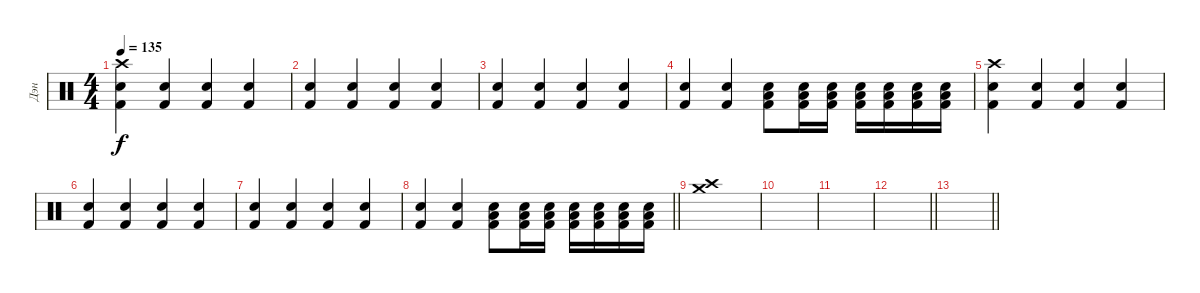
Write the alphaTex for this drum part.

\track ("Дэн" "Дэн") {instrument percussion}
\staff {score}
\articulation defaults
\ts (4 4)
\tempo 135
\clef neutral
\ks c
("Snare (hit) 2" "Kick (hit) 2" "Crash high (hit)").4{dy f} ("Snare (hit) 2" "Kick (hit) 2").4 ("Snare (hit) 2" "Kick (hit) 2").4 ("Snare (hit) 2" "Kick (hit) 2").4 |
("Snare (hit) 2" "Kick (hit) 2").4 ("Snare (hit) 2" "Kick (hit) 2").4 ("Snare (hit) 2" "Kick (hit) 2").4 ("Snare (hit) 2" "Kick (hit) 2").4 |
("Snare (hit) 2" "Kick (hit) 2").4 ("Snare (hit) 2" "Kick (hit) 2").4 ("Snare (hit) 2" "Kick (hit) 2").4 ("Snare (hit) 2" "Kick (hit) 2").4 |
("Snare (hit) 2" "Kick (hit) 2").4 ("Snare (hit) 2" "Kick (hit) 2").4 ("Snare (hit) 2" "Low Tom (hit)" "Kick (hit) 2").8 ("Snare (hit) 2" "Low Tom (hit)" "Kick (hit) 2").16 ("Snare (hit) 2" "Low Tom (hit)" "Kick (hit) 2").16 ("Snare (hit) 2" "Low Tom (hit)" "Kick (hit) 2").16 ("Snare (hit) 2" "Low Tom (hit)" "Kick (hit) 2").16 ("Snare (hit) 2" "Low Tom (hit)" "Kick (hit) 2").16 ("Snare (hit) 2" "Low Tom (hit)" "Kick (hit) 2").16 |
("Snare (hit) 2" "Kick (hit) 2" "Crash high (hit)").4 ("Snare (hit) 2" "Kick (hit) 2").4 ("Snare (hit) 2" "Kick (hit) 2").4 ("Snare (hit) 2" "Kick (hit) 2").4 |
("Snare (hit) 2" "Kick (hit) 2").4 ("Snare (hit) 2" "Kick (hit) 2").4 ("Snare (hit) 2" "Kick (hit) 2").4 ("Snare (hit) 2" "Kick (hit) 2").4 |
("Snare (hit) 2" "Kick (hit) 2").4 ("Snare (hit) 2" "Kick (hit) 2").4 ("Snare (hit) 2" "Kick (hit) 2").4 ("Snare (hit) 2" "Kick (hit) 2").4 |
\barLineRight lightlight
("Snare (hit) 2" "Kick (hit) 2").4 ("Snare (hit) 2" "Kick (hit) 2").4 ("Snare (hit) 2" "Low Tom (hit)" "Kick (hit) 2").8 ("Snare (hit) 2" "Low Tom (hit)" "Kick (hit) 2").16 ("Snare (hit) 2" "Low Tom (hit)" "Kick (hit) 2").16 ("Snare (hit) 2" "Low Tom (hit)" "Kick (hit) 2").16 ("Snare (hit) 2" "Low Tom (hit)" "Kick (hit) 2").16 ("Snare (hit) 2" "Low Tom (hit)" "Kick (hit) 2").16 ("Snare (hit) 2" "Low Tom (hit)" "Kick (hit) 2").16 |
("Crash high (hit)" "Crash medium (hit)").1 |
|
|
\barLineRight lightlight
|
\barLineRight lightlight
